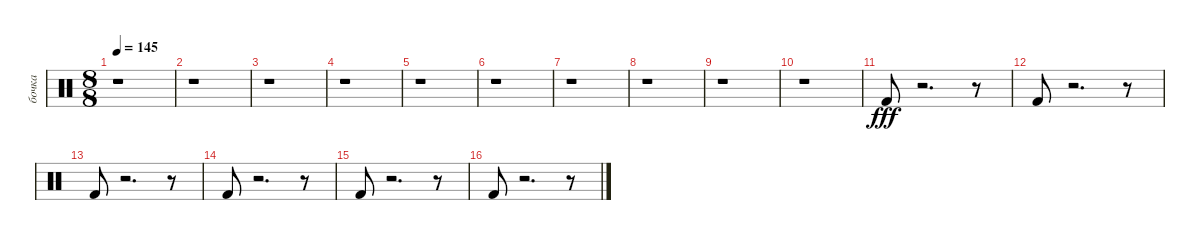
\track ("бочка" "бочка") {instrument percussion}
\staff {score}
\articulation defaults
\ts (8 8)
\tempo 145
\clef neutral
\ks c
r.1{dy f} |
r.1 |
r.1 |
r.1 |
r.1 |
r.1 |
r.1 |
r.1 |
r.1 |
r.1 |
"Kick (hit) 2".8{dy fff} r.2{d} r.8 |
"Kick (hit) 2".8 r.2{d} r.8 |
"Kick (hit) 2".8 r.2{d} r.8 |
"Kick (hit) 2".8 r.2{d} r.8 |
"Kick (hit) 2".8 r.2{d} r.8 |
"Kick (hit) 2".8 r.2{d} r.8
